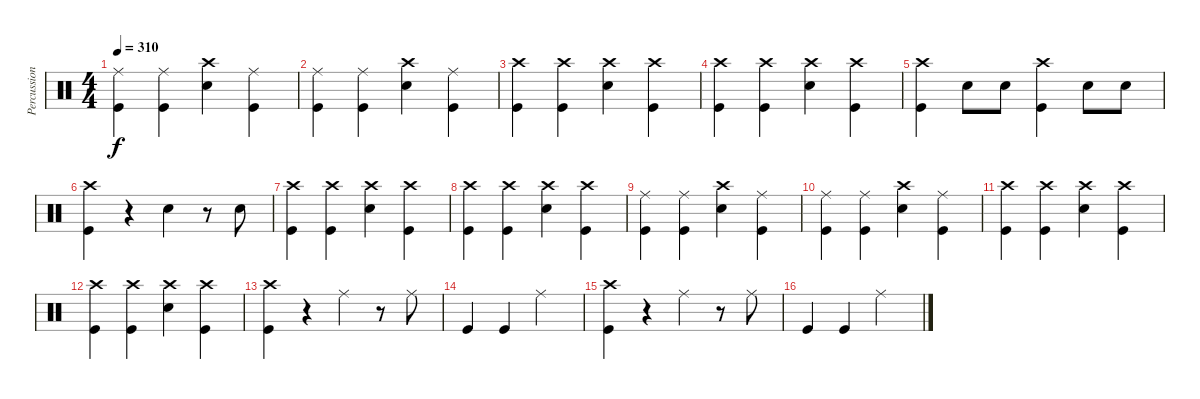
\track ("Percussion" "Percussion") {instrument percussion}
\staff {score}
\articulation defaults
\ts (4 4)
\tempo 310
\clef neutral
\ks c
("Ride (middle)" "Kick (hit)").4{dy f} ("Ride (middle)" "Kick (hit)").4 ("Crash high (hit)" "Electric Snare (hit)").4 ("Ride (middle)" "Kick (hit)").4 |
("Ride (middle)" "Kick (hit)").4 ("Ride (middle)" "Kick (hit)").4 ("Crash high (hit)" "Electric Snare (hit)").4 ("Ride (middle)" "Kick (hit)").4 |
("Crash high (hit)" "Kick (hit)").4 ("Crash high (hit)" "Kick (hit)").4 ("Crash high (hit)" "Electric Snare (hit)").4 ("Crash high (hit)" "Kick (hit)").4 |
("Crash high (hit)" "Kick (hit)").4 ("Crash high (hit)" "Kick (hit)").4 ("Crash high (hit)" "Electric Snare (hit)").4 ("Crash high (hit)" "Kick (hit)").4 |
("Crash high (hit)" "Kick (hit)").4 "Electric Snare (hit)".8 "Electric Snare (hit)".8 ("Crash high (hit)" "Kick (hit)").4 "Electric Snare (hit)".8 "Electric Snare (hit)".8 |
("Crash high (hit)" "Kick (hit)").4 r.4 "Electric Snare (hit)".4 r.8 "Electric Snare (hit)".8 |
("Crash high (hit)" "Kick (hit)").4 ("Crash high (hit)" "Kick (hit)").4 ("Crash high (hit)" "Electric Snare (hit)").4 ("Crash high (hit)" "Kick (hit)").4 |
("Crash high (hit)" "Kick (hit)").4 ("Crash high (hit)" "Kick (hit)").4 ("Crash high (hit)" "Electric Snare (hit)").4 ("Crash high (hit)" "Kick (hit)").4 |
("Ride (middle)" "Kick (hit)").4 ("Ride (middle)" "Kick (hit)").4 ("Crash high (hit)" "Electric Snare (hit)").4 ("Ride (middle)" "Kick (hit)").4 |
("Ride (middle)" "Kick (hit)").4 ("Ride (middle)" "Kick (hit)").4 ("Crash high (hit)" "Electric Snare (hit)").4 ("Ride (middle)" "Kick (hit)").4 |
("Crash high (hit)" "Kick (hit)").4 ("Crash high (hit)" "Kick (hit)").4 ("Crash high (hit)" "Electric Snare (hit)").4 ("Crash high (hit)" "Kick (hit)").4 |
("Crash high (hit)" "Kick (hit)").4 ("Crash high (hit)" "Kick (hit)").4 ("Crash high (hit)" "Electric Snare (hit)").4 ("Crash high (hit)" "Kick (hit)").4 |
("Crash high (hit)" "Kick (hit)").4 r.4 "Ride (middle)".4 r.8 "Ride (middle)".8 |
"Kick (hit)".4 "Kick (hit)".4 "Ride (middle)".2 |
("Crash high (hit)" "Kick (hit)").4 r.4 "Ride (middle)".4 r.8 "Ride (middle)".8 |
"Kick (hit)".4 "Kick (hit)".4 "Ride (middle)".2
